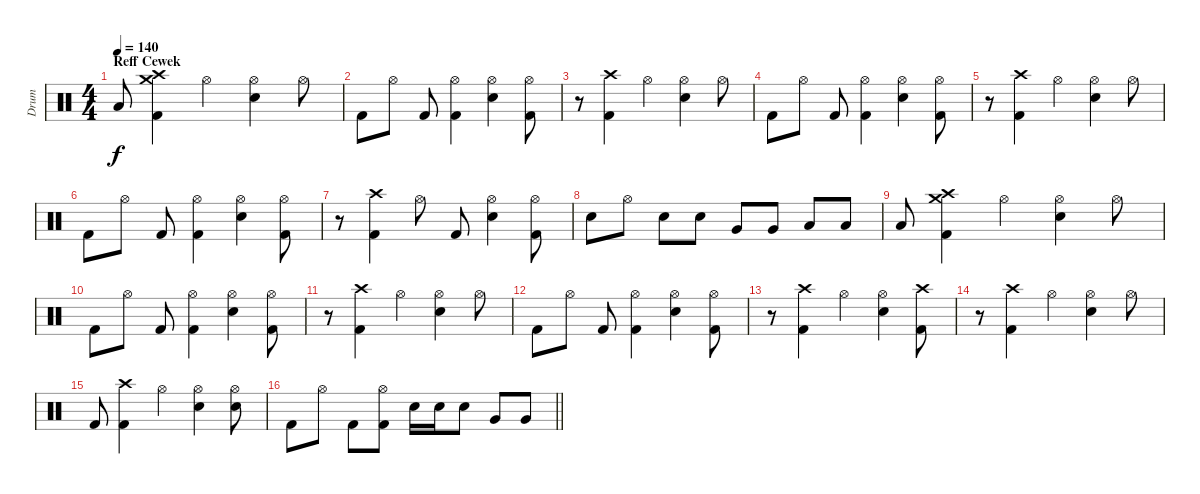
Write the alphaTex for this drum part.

\track ("Drum" "Drum") {instrument percussion}
\staff {score}
\articulation defaults
\ts (4 4)
\section ("" "Reff Cewek")
\tempo 140
\clef neutral
\ks c "Low Floor Tom (hit)".8{dy f}
("Kick (hit) 2" "Crash medium (hit)" "Crash high (hit)").4 "Hi-Hat (open)".4 ("Hi-Hat (open)" "Electric Snare (hit)").4 "Hi-Hat (open)".8 |
"Kick (hit) 2".8 "Hi-Hat (open)".8 "Kick (hit) 2".8 ("Hi-Hat (open)" "Kick (hit) 2").4 ("Electric Snare (hit)" "Hi-Hat (open)").4 ("Hi-Hat (open)" "Kick (hit) 2").8 |
r.8 ("Crash high (hit)" "Kick (hit) 2").4 "Hi-Hat (open)".4 ("Electric Snare (hit)" "Hi-Hat (open)").4 "Hi-Hat (open)".8 |
"Kick (hit) 2".8 "Hi-Hat (open)".8 "Kick (hit) 2".8 ("Hi-Hat (open)" "Kick (hit) 2").4 ("Electric Snare (hit)" "Hi-Hat (open)").4 ("Hi-Hat (open)" "Kick (hit) 2").8 |
r.8 ("Crash high (hit)" "Kick (hit) 2").4 "Hi-Hat (open)".4 ("Electric Snare (hit)" "Hi-Hat (open)").4 "Hi-Hat (open)".8 |
"Kick (hit) 2".8 "Hi-Hat (open)".8 "Kick (hit) 2".8 ("Hi-Hat (open)" "Kick (hit) 2").4 ("Electric Snare (hit)" "Hi-Hat (open)").4 ("Hi-Hat (open)" "Kick (hit) 2").8 |
r.8 ("Kick (hit) 2" "Crash high (hit)").4 "Hi-Hat (open)".8 "Kick (hit) 2".8 ("Hi-Hat (open)" "Electric Snare (hit)").4 ("Hi-Hat (open)" "Kick (hit) 2").8 |
"Electric Snare (hit)".8 "Hi-Hat (open)".8 "Electric Snare (hit)".8 "Electric Snare (hit)".8 "Very Low Tom (hit)".8 "Very Low Tom (hit)".8 "Low Floor Tom (hit)".8 "Low Floor Tom (hit)".8 |
"Low Floor Tom (hit)".8 ("Kick (hit) 2" "Crash medium (hit)" "Crash high (hit)").4 "Hi-Hat (open)".4 ("Hi-Hat (open)" "Electric Snare (hit)").4 "Hi-Hat (open)".8 |
"Kick (hit) 2".8 "Hi-Hat (open)".8 "Kick (hit) 2".8 ("Hi-Hat (open)" "Kick (hit) 2").4 ("Electric Snare (hit)" "Hi-Hat (open)").4 ("Hi-Hat (open)" "Kick (hit) 2").8 |
r.8 ("Crash high (hit)" "Kick (hit) 2").4 "Hi-Hat (open)".4 ("Electric Snare (hit)" "Hi-Hat (open)").4 "Hi-Hat (open)".8 |
"Kick (hit) 2".8 "Hi-Hat (open)".8 "Kick (hit) 2".8 ("Hi-Hat (open)" "Kick (hit) 2").4 ("Electric Snare (hit)" "Hi-Hat (open)").4 ("Hi-Hat (open)" "Kick (hit) 2").8 |
r.8 ("Crash high (hit)" "Kick (hit) 2").4 "Hi-Hat (open)".4 ("Electric Snare (hit)" "Hi-Hat (open)").4 ("Crash high (hit)" "Kick (hit) 2").8 |
r.8 ("Crash high (hit)" "Kick (hit) 2").4 "Hi-Hat (open)".4 ("Hi-Hat (open)" "Electric Snare (hit)").4 "Hi-Hat (open)".8 |
"Kick (hit) 2".8 ("Crash high (hit)" "Kick (hit) 2").4 "Hi-Hat (open)".4 ("Hi-Hat (open)" "Electric Snare (hit)").4 ("Electric Snare (hit)" "Hi-Hat (open)").8 |
\barLineRight lightlight "Kick (hit) 2".8 "Hi-Hat (open)".8 "Kick (hit) 2".8
("Hi-Hat (open)" "Kick (hit) 2").8 "Electric Snare (hit)".16 "Electric Snare (hit)".16 "Electric Snare (hit)".8 "Very Low Tom (hit)".8 "Very Low Tom (hit)".8
